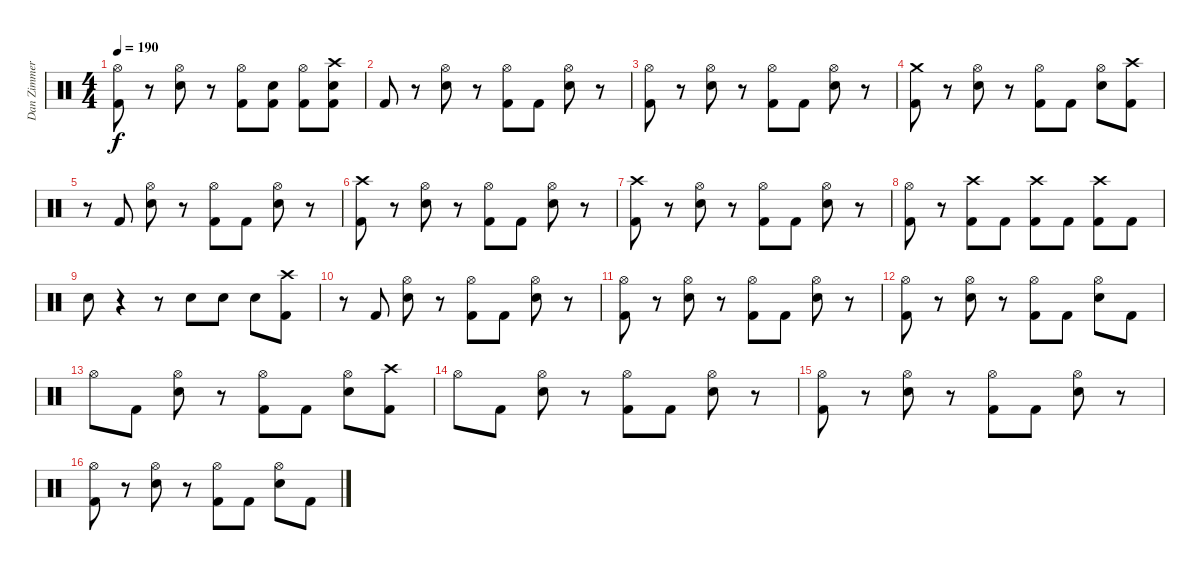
\track ("Dan Zimmermann" "Dan Zimmer") {instrument percussion}
\staff {score}
\articulation defaults
\ts (4 4)
\tempo 190
\clef neutral
\ks c
("Hi-Hat (open)" "Kick (hit) 2").8{dy f} r.8 ("Hi-Hat (open)" "Electric Snare (hit)").8 r.8 ("Hi-Hat (open)" "Kick (hit) 2").8 ("Electric Snare (hit)" "Kick (hit) 2").8 ("Hi-Hat (open)" "Kick (hit) 2").8 ("Crash high (hit)" "Electric Snare (hit)" "Kick (hit) 2").8 |
"Kick (hit) 2".8 r.8 ("Hi-Hat (open)" "Electric Snare (hit)").8 r.8 ("Hi-Hat (open)" "Kick (hit) 2").8 "Kick (hit) 2".8 ("Hi-Hat (open)" "Electric Snare (hit)").8 r.8 |
("Hi-Hat (open)" "Kick (hit) 2").8 r.8 ("Hi-Hat (open)" "Electric Snare (hit)").8 r.8 ("Hi-Hat (open)" "Kick (hit) 2").8 "Kick (hit) 2".8 ("Hi-Hat (open)" "Electric Snare (hit)").8 r.8 |
("Crash medium (hit)" "Kick (hit) 2").8 r.8 ("Hi-Hat (open)" "Electric Snare (hit)").8 r.8 ("Hi-Hat (open)" "Kick (hit) 2").8 "Kick (hit) 2".8 ("Hi-Hat (open)" "Electric Snare (hit)").8 ("Crash high (hit)" "Kick (hit) 2").8 |
r.8 "Kick (hit) 2".8 ("Hi-Hat (open)" "Electric Snare (hit)").8 r.8 ("Hi-Hat (open)" "Kick (hit) 2").8 "Kick (hit) 2".8 ("Hi-Hat (open)" "Electric Snare (hit)").8 r.8 |
("Crash high (hit)" "Kick (hit) 2").8 r.8 ("Hi-Hat (open)" "Electric Snare (hit)").8 r.8 ("Hi-Hat (open)" "Kick (hit) 2").8 "Kick (hit) 2".8 ("Hi-Hat (open)" "Electric Snare (hit)").8 r.8 |
("Crash high (hit)" "Kick (hit) 2").8 r.8 ("Hi-Hat (open)" "Electric Snare (hit)").8 r.8 ("Hi-Hat (open)" "Kick (hit) 2").8 "Kick (hit) 2".8 ("Hi-Hat (open)" "Electric Snare (hit)").8 r.8 |
("Hi-Hat (open)" "Kick (hit) 2").8 r.8 ("Crash high (hit)" "Kick (hit) 2").8 "Kick (hit) 2".8 ("Crash high (hit)" "Kick (hit) 2").8 "Kick (hit) 2".8 ("Crash high (hit)" "Kick (hit) 2").8 "Kick (hit) 2".8 |
"Electric Snare (hit)".8 r.4 r.8 "Electric Snare (hit)".8 "Electric Snare (hit)".8 "Electric Snare (hit)".8 ("Crash high (hit)" "Kick (hit) 2").8 |
r.8 "Kick (hit) 2".8 ("Hi-Hat (open)" "Electric Snare (hit)").8 r.8 ("Hi-Hat (open)" "Kick (hit) 2").8 "Kick (hit) 2".8 ("Hi-Hat (open)" "Electric Snare (hit)").8 r.8 |
("Hi-Hat (open)" "Kick (hit) 2").8 r.8 ("Hi-Hat (open)" "Electric Snare (hit)").8 r.8 ("Hi-Hat (open)" "Kick (hit) 2").8 "Kick (hit) 2".8 ("Hi-Hat (open)" "Electric Snare (hit)").8 r.8 |
("Hi-Hat (open)" "Kick (hit) 2").8 r.8 ("Hi-Hat (open)" "Electric Snare (hit)").8 r.8 ("Hi-Hat (open)" "Kick (hit) 2").8 "Kick (hit) 2".8 ("Hi-Hat (open)" "Electric Snare (hit)").8 "Kick (hit) 2".8 |
"Hi-Hat (open)".8 "Kick (hit) 2".8 ("Hi-Hat (open)" "Electric Snare (hit)").8 r.8 ("Hi-Hat (open)" "Kick (hit) 2").8 "Kick (hit) 2".8 ("Hi-Hat (open)" "Electric Snare (hit)").8 ("Crash high (hit)" "Kick (hit) 2").8 |
"Hi-Hat (open)".8 "Kick (hit) 2".8 ("Hi-Hat (open)" "Electric Snare (hit)").8 r.8 ("Hi-Hat (open)" "Kick (hit) 2").8 "Kick (hit) 2".8 ("Hi-Hat (open)" "Electric Snare (hit)").8 r.8 |
("Hi-Hat (open)" "Kick (hit) 2").8 r.8 ("Hi-Hat (open)" "Electric Snare (hit)").8 r.8 ("Hi-Hat (open)" "Kick (hit) 2").8 "Kick (hit) 2".8 ("Hi-Hat (open)" "Electric Snare (hit)").8 r.8 |
("Hi-Hat (open)" "Kick (hit) 2").8 r.8 ("Hi-Hat (open)" "Electric Snare (hit)").8 r.8 ("Hi-Hat (open)" "Kick (hit) 2").8 "Kick (hit) 2".8 ("Hi-Hat (open)" "Electric Snare (hit)").8 "Kick (hit) 2".8
